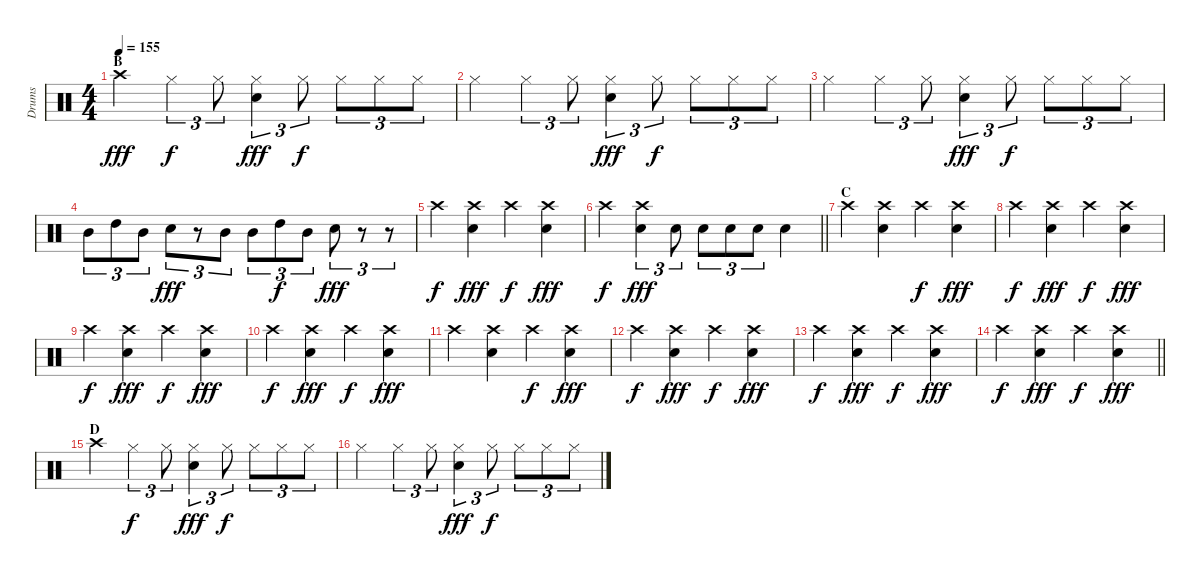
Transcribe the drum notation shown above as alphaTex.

\track ("Drums" "Drums") {instrument percussion}
\staff {score}
\articulation defaults
\ts (4 4)
\section ("" "B")
\tempo 155
\clef neutral
\ks c "Crash high (hit)".4{dy fff} "Hi-Hat (closed)".4{tu (3 2) dy f} "Hi-Hat (closed)".8{tu (3 2)}
("Hi-Hat (closed)" "Electric Snare (hit)").4{tu (3 2) dy fff} "Hi-Hat (closed)".8{tu (3 2) dy f} "Hi-Hat (closed)".8{tu (3 2)} "Hi-Hat (closed)".8{tu (3 2)} "Hi-Hat (closed)".8{tu (3 2)} |
"Hi-Hat (closed)".4 "Hi-Hat (closed)".4{tu (3 2)} "Hi-Hat (closed)".8{tu (3 2)} ("Hi-Hat (closed)" "Electric Snare (hit)").4{tu (3 2) dy fff} "Hi-Hat (closed)".8{tu (3 2) dy f} "Hi-Hat (closed)".8{tu (3 2)} "Hi-Hat (closed)".8{tu (3 2)} "Hi-Hat (closed)".8{tu (3 2)} |
"Hi-Hat (closed)".4 "Hi-Hat (closed)".4{tu (3 2)} "Hi-Hat (closed)".8{tu (3 2)} ("Hi-Hat (closed)" "Electric Snare (hit)").4{tu (3 2) dy fff} "Hi-Hat (closed)".8{tu (3 2) dy f} "Hi-Hat (closed)".8{tu (3 2)} "Hi-Hat (closed)".8{tu (3 2)} "Hi-Hat (closed)".8{tu (3 2)} |
"Mid Tom (hit)".8{tu (3 2)} "High Tom (hit)".8{tu (3 2)} "Mid Tom (hit)".8{tu (3 2)} "Electric Snare (hit)".8{tu (3 2) dy fff} r.8{tu (3 2)} "Mid Tom (hit)".8{tu (3 2)} "Mid Tom (hit)".8{tu (3 2)} "High Tom (hit)".8{tu (3 2) dy f} "Mid Tom (hit)".8{tu (3 2)} "Electric Snare (hit)".8{tu (3 2) dy fff} r.8{tu (3 2)} r.8{tu (3 2)} |
"Crash high (hit)".4{dy f} ("Crash high (hit)" "Electric Snare (hit)").4{dy fff} "Crash high (hit)".4{dy f} ("Crash high (hit)" "Electric Snare (hit)").4{dy fff} |
\barLineRight lightlight "Crash high (hit)".4{dy f}
("Crash high (hit)" "Electric Snare (hit)").4{tu (3 2) dy fff} "Electric Snare (hit)".8{tu (3 2)} "Electric Snare (hit)".8{tu (3 2)} "Electric Snare (hit)".8{tu (3 2)} "Electric Snare (hit)".8{tu (3 2)} "Electric Snare (hit)".4 |
\section ("" "C")
"Crash high (hit)".4 ("Crash high (hit)" "Electric Snare (hit)").4 "Crash high (hit)".4{dy f} ("Crash high (hit)" "Electric Snare (hit)").4{dy fff} |
"Crash high (hit)".4{dy f} ("Crash high (hit)" "Electric Snare (hit)").4{dy fff} "Crash high (hit)".4{dy f} ("Crash high (hit)" "Electric Snare (hit)").4{dy fff} |
"Crash high (hit)".4{dy f} ("Crash high (hit)" "Electric Snare (hit)").4{dy fff} "Crash high (hit)".4{dy f} ("Crash high (hit)" "Electric Snare (hit)").4{dy fff} |
"Crash high (hit)".4{dy f} ("Crash high (hit)" "Electric Snare (hit)").4{dy fff} "Crash high (hit)".4{dy f} ("Crash high (hit)" "Electric Snare (hit)").4{dy fff} |
"Crash high (hit)".4 ("Crash high (hit)" "Electric Snare (hit)").4 "Crash high (hit)".4{dy f} ("Crash high (hit)" "Electric Snare (hit)").4{dy fff} |
"Crash high (hit)".4{dy f} ("Crash high (hit)" "Electric Snare (hit)").4{dy fff} "Crash high (hit)".4{dy f} ("Crash high (hit)" "Electric Snare (hit)").4{dy fff} |
"Crash high (hit)".4{dy f} ("Crash high (hit)" "Electric Snare (hit)").4{dy fff} "Crash high (hit)".4{dy f} ("Crash high (hit)" "Electric Snare (hit)").4{dy fff} |
\barLineRight lightlight "Crash high (hit)".4{dy f}
("Crash high (hit)" "Electric Snare (hit)").4{dy fff} "Crash high (hit)".4{dy f} ("Crash high (hit)" "Electric Snare (hit)").4{dy fff} |
\section ("" "D")
"Crash high (hit)".4 "Hi-Hat (closed)".4{tu (3 2) dy f} "Hi-Hat (closed)".8{tu (3 2)} ("Hi-Hat (closed)" "Electric Snare (hit)").4{tu (3 2) dy fff} "Hi-Hat (closed)".8{tu (3 2) dy f} "Hi-Hat (closed)".8{tu (3 2)} "Hi-Hat (closed)".8{tu (3 2)} "Hi-Hat (closed)".8{tu (3 2)} |
"Hi-Hat (closed)".4 "Hi-Hat (closed)".4{tu (3 2)} "Hi-Hat (closed)".8{tu (3 2)} ("Hi-Hat (closed)" "Electric Snare (hit)").4{tu (3 2) dy fff} "Hi-Hat (closed)".8{tu (3 2) dy f} "Hi-Hat (closed)".8{tu (3 2)} "Hi-Hat (closed)".8{tu (3 2)} "Hi-Hat (closed)".8{tu (3 2)}
